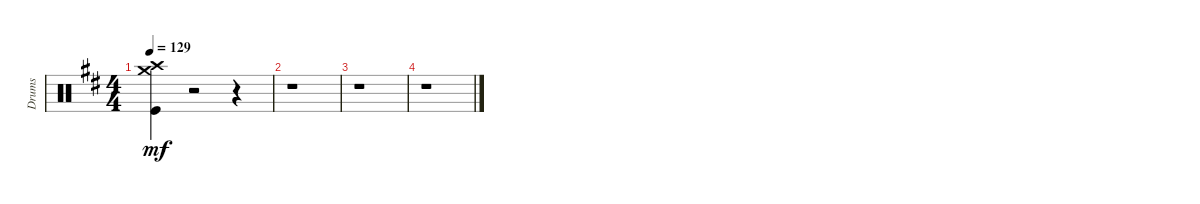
\track ("Drums" "Drums") {instrument percussion}
\staff {score}
\articulation defaults
\ts (4 4)
\tempo 129
\clef neutral
\ks d
("Kick (hit)" "Crash high (hit)" "Crash medium (hit)").4{dy mf} r.2 r.4 |
r.1 |
r.1 |
r.1
